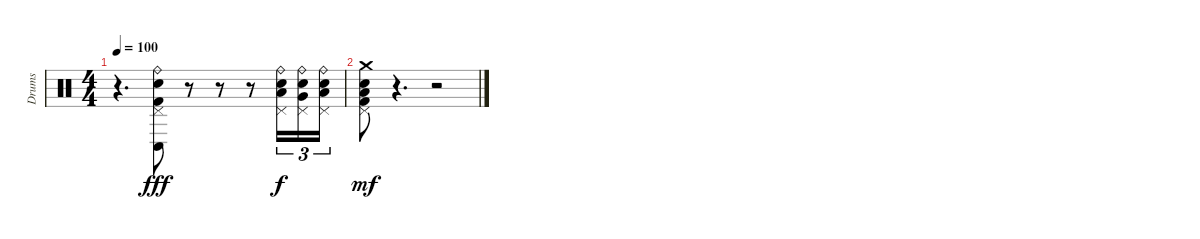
\track ("Drums" "Drums") {instrument percussion}
\staff {score}
\articulation defaults
\ts (4 4)
\tempo 100
\clef neutral
\ks c
r.4{d dy f} ("Ride (bell)" "Pedal Hi-Hat (hit)" "Conga low (hit)" "Electric Snare (hit)" "Kick (hit) 2").8{dy fff} r.8 r.8 r.8 ("Ride (bell)" "Pedal Hi-Hat (hit)" "Low Floor Tom (hit)" "Electric Snare (hit)").16{tu (3 2) dy f} ("Ride (bell)" "Pedal Hi-Hat (hit)" "Very Low Tom (hit)" "Electric Snare (hit)").16{tu (3 2)} ("Ride (bell)" "Pedal Hi-Hat (hit)" "Low Tom (hit)" "Electric Snare (hit)").16{tu (3 2)} |
("Crash medium (hit)" "Pedal Hi-Hat (hit)" "Low Floor Tom (hit)" "Electric Snare (hit)" "Kick (hit) 2").8{dy mf} r.4{d} r.2
